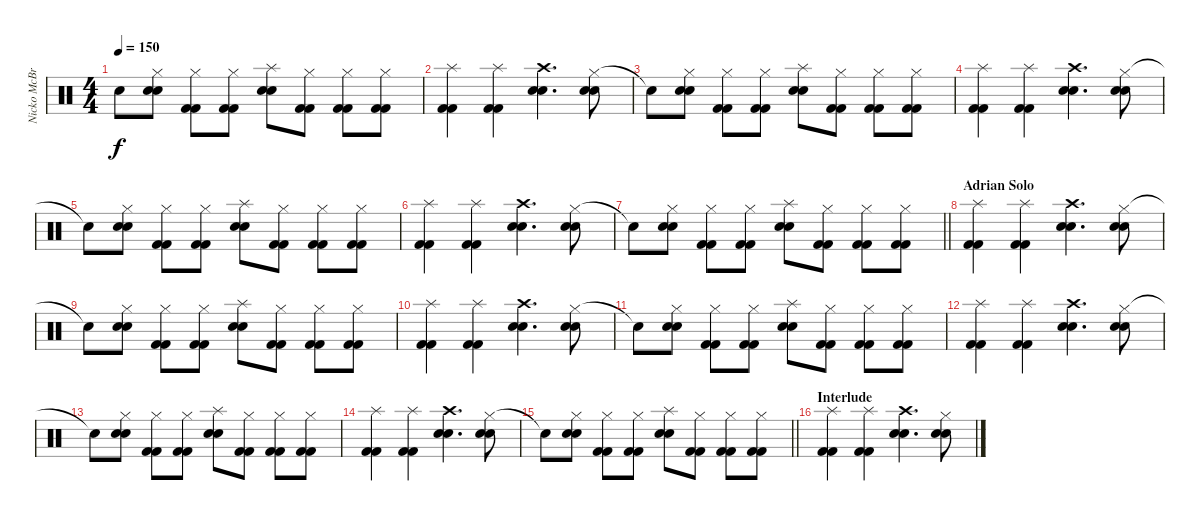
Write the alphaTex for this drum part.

\track ("Nicko McBrain" "Nicko McBr") {instrument percussion}
\staff {score}
\articulation defaults
\ts (4 4)
\tempo 150
\clef neutral
\ks c "Snare (hit) 2"{t}.8{dy f}
("Hi-Hat (closed)" "Snare (hit) 2" "Snare (hit) 2").8 ("Hi-Hat (closed)" "Kick (hit) 2" "Kick (hit) 2").8 ("Hi-Hat (closed)" "Kick (hit) 2" "Kick (hit) 2").8 ("Splash (hit)" "Snare (hit) 2" "Snare (hit) 2").8 ("Hi-Hat (closed)" "Kick (hit) 2" "Kick (hit) 2").8 ("Hi-Hat (closed)" "Kick (hit) 2" "Kick (hit) 2").8 ("Hi-Hat (closed)" "Kick (hit) 2" "Kick (hit) 2").8 |
("Splash (hit)" "Kick (hit) 2" "Kick (hit) 2").4 ("Splash (hit)" "Kick (hit) 2" "Kick (hit) 2").4 ("Crash high (hit)" "Snare (hit) 2" "Snare (hit) 2").4{d} ("Hi-Hat (closed)" "Snare (hit) 2" "Snare (hit) 2").8 |
"Snare (hit) 2"{t}.8 ("Hi-Hat (closed)" "Snare (hit) 2" "Snare (hit) 2").8 ("Hi-Hat (closed)" "Kick (hit) 2" "Kick (hit) 2").8 ("Hi-Hat (closed)" "Kick (hit) 2" "Kick (hit) 2").8 ("Splash (hit)" "Snare (hit) 2" "Snare (hit) 2").8 ("Hi-Hat (closed)" "Kick (hit) 2" "Kick (hit) 2").8 ("Hi-Hat (closed)" "Kick (hit) 2" "Kick (hit) 2").8 ("Hi-Hat (closed)" "Kick (hit) 2" "Kick (hit) 2").8 |
("Splash (hit)" "Kick (hit) 2" "Kick (hit) 2").4 ("Splash (hit)" "Kick (hit) 2" "Kick (hit) 2").4 ("Crash high (hit)" "Snare (hit) 2" "Snare (hit) 2").4{d} ("Hi-Hat (closed)" "Snare (hit) 2" "Snare (hit) 2").8 |
"Snare (hit) 2"{t}.8 ("Hi-Hat (closed)" "Snare (hit) 2" "Snare (hit) 2").8 ("Hi-Hat (closed)" "Kick (hit) 2" "Kick (hit) 2").8 ("Hi-Hat (closed)" "Kick (hit) 2" "Kick (hit) 2").8 ("Splash (hit)" "Snare (hit) 2" "Snare (hit) 2").8 ("Hi-Hat (closed)" "Kick (hit) 2" "Kick (hit) 2").8 ("Hi-Hat (closed)" "Kick (hit) 2" "Kick (hit) 2").8 ("Hi-Hat (closed)" "Kick (hit) 2" "Kick (hit) 2").8 |
("Splash (hit)" "Kick (hit) 2" "Kick (hit) 2").4 ("Splash (hit)" "Kick (hit) 2" "Kick (hit) 2").4 ("Crash high (hit)" "Snare (hit) 2" "Snare (hit) 2").4{d} ("Hi-Hat (closed)" "Snare (hit) 2" "Snare (hit) 2").8 |
\barLineRight lightlight "Snare (hit) 2"{t}.8
("Hi-Hat (closed)" "Snare (hit) 2" "Snare (hit) 2").8 ("Hi-Hat (closed)" "Kick (hit) 2" "Kick (hit) 2").8 ("Hi-Hat (closed)" "Kick (hit) 2" "Kick (hit) 2").8 ("Splash (hit)" "Snare (hit) 2" "Snare (hit) 2").8 ("Hi-Hat (closed)" "Kick (hit) 2" "Kick (hit) 2").8 ("Hi-Hat (closed)" "Kick (hit) 2" "Kick (hit) 2").8 ("Hi-Hat (closed)" "Kick (hit) 2" "Kick (hit) 2").8 |
\section ("" "Adrian Solo")
("Splash (hit)" "Kick (hit) 2" "Kick (hit) 2").4 ("Splash (hit)" "Kick (hit) 2" "Kick (hit) 2").4 ("Crash high (hit)" "Snare (hit) 2" "Snare (hit) 2").4{d} ("Hi-Hat (closed)" "Snare (hit) 2" "Snare (hit) 2").8 |
"Snare (hit) 2"{t}.8 ("Hi-Hat (closed)" "Snare (hit) 2" "Snare (hit) 2").8 ("Hi-Hat (closed)" "Kick (hit) 2" "Kick (hit) 2").8 ("Hi-Hat (closed)" "Kick (hit) 2" "Kick (hit) 2").8 ("Splash (hit)" "Snare (hit) 2" "Snare (hit) 2").8 ("Hi-Hat (closed)" "Kick (hit) 2" "Kick (hit) 2").8 ("Hi-Hat (closed)" "Kick (hit) 2" "Kick (hit) 2").8 ("Hi-Hat (closed)" "Kick (hit) 2" "Kick (hit) 2").8 |
("Splash (hit)" "Kick (hit) 2" "Kick (hit) 2").4 ("Splash (hit)" "Kick (hit) 2" "Kick (hit) 2").4 ("Crash high (hit)" "Snare (hit) 2" "Snare (hit) 2").4{d} ("Hi-Hat (closed)" "Snare (hit) 2" "Snare (hit) 2").8 |
"Snare (hit) 2"{t}.8 ("Hi-Hat (closed)" "Snare (hit) 2" "Snare (hit) 2").8 ("Hi-Hat (closed)" "Kick (hit) 2" "Kick (hit) 2").8 ("Hi-Hat (closed)" "Kick (hit) 2" "Kick (hit) 2").8 ("Splash (hit)" "Snare (hit) 2" "Snare (hit) 2").8 ("Hi-Hat (closed)" "Kick (hit) 2" "Kick (hit) 2").8 ("Hi-Hat (closed)" "Kick (hit) 2" "Kick (hit) 2").8 ("Hi-Hat (closed)" "Kick (hit) 2" "Kick (hit) 2").8 |
("Splash (hit)" "Kick (hit) 2" "Kick (hit) 2").4 ("Splash (hit)" "Kick (hit) 2" "Kick (hit) 2").4 ("Crash high (hit)" "Snare (hit) 2" "Snare (hit) 2").4{d} ("Hi-Hat (closed)" "Snare (hit) 2" "Snare (hit) 2").8 |
"Snare (hit) 2"{t}.8 ("Hi-Hat (closed)" "Snare (hit) 2" "Snare (hit) 2").8 ("Hi-Hat (closed)" "Kick (hit) 2" "Kick (hit) 2").8 ("Hi-Hat (closed)" "Kick (hit) 2" "Kick (hit) 2").8 ("Splash (hit)" "Snare (hit) 2" "Snare (hit) 2").8 ("Hi-Hat (closed)" "Kick (hit) 2" "Kick (hit) 2").8 ("Hi-Hat (closed)" "Kick (hit) 2" "Kick (hit) 2").8 ("Hi-Hat (closed)" "Kick (hit) 2" "Kick (hit) 2").8 |
("Splash (hit)" "Kick (hit) 2" "Kick (hit) 2").4 ("Splash (hit)" "Kick (hit) 2" "Kick (hit) 2").4 ("Crash high (hit)" "Snare (hit) 2" "Snare (hit) 2").4{d} ("Hi-Hat (closed)" "Snare (hit) 2" "Snare (hit) 2").8 |
\barLineRight lightlight "Snare (hit) 2"{t}.8
("Hi-Hat (closed)" "Snare (hit) 2" "Snare (hit) 2").8 ("Hi-Hat (closed)" "Kick (hit) 2" "Kick (hit) 2").8 ("Hi-Hat (closed)" "Kick (hit) 2" "Kick (hit) 2").8 ("Splash (hit)" "Snare (hit) 2" "Snare (hit) 2").8 ("Hi-Hat (closed)" "Kick (hit) 2" "Kick (hit) 2").8 ("Hi-Hat (closed)" "Kick (hit) 2" "Kick (hit) 2").8 ("Hi-Hat (closed)" "Kick (hit) 2" "Kick (hit) 2").8 |
\section ("" "Interlude")
("Splash (hit)" "Kick (hit) 2" "Kick (hit) 2").4 ("Splash (hit)" "Kick (hit) 2" "Kick (hit) 2").4 ("Crash high (hit)" "Snare (hit) 2" "Snare (hit) 2").4{d} ("Hi-Hat (closed)" "Snare (hit) 2" "Snare (hit) 2").8
